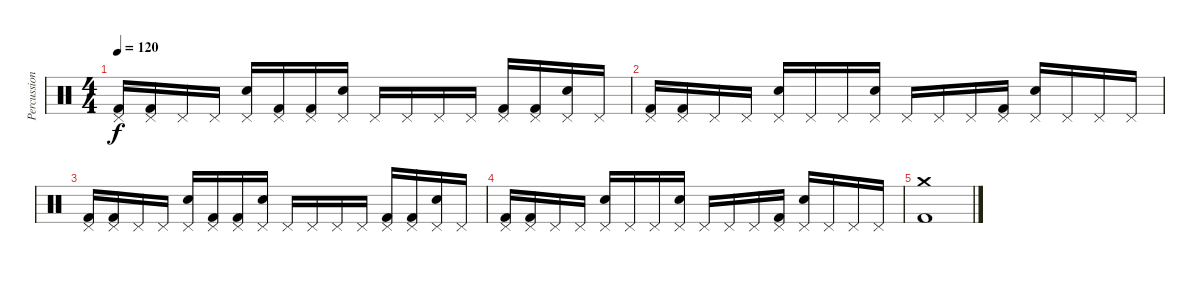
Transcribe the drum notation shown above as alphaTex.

\track ("Percussions" "Percussion") {instrument percussion}
\staff {score}
\articulation defaults
\ts (4 4)
\tempo 120
\clef neutral
\ks c
("Kick (hit) 2" "Pedal Hi-Hat (hit)").16{dy f} ("Kick (hit) 2" "Pedal Hi-Hat (hit)").16 "Pedal Hi-Hat (hit)".16 "Pedal Hi-Hat (hit)".16 ("Snare (hit) 2" "Pedal Hi-Hat (hit)").16 ("Kick (hit) 2" "Pedal Hi-Hat (hit)").16 ("Kick (hit) 2" "Pedal Hi-Hat (hit)").16 ("Snare (hit) 2" "Pedal Hi-Hat (hit)").16 "Pedal Hi-Hat (hit)".16 "Pedal Hi-Hat (hit)".16 "Pedal Hi-Hat (hit)".16 "Pedal Hi-Hat (hit)".16 ("Kick (hit) 2" "Pedal Hi-Hat (hit)").16 ("Kick (hit) 2" "Pedal Hi-Hat (hit)").16 ("Snare (hit) 2" "Pedal Hi-Hat (hit)").16 "Pedal Hi-Hat (hit)".16 |
("Kick (hit) 2" "Pedal Hi-Hat (hit)").16 ("Kick (hit) 2" "Pedal Hi-Hat (hit)").16 "Pedal Hi-Hat (hit)".16 "Pedal Hi-Hat (hit)".16 ("Snare (hit) 2" "Pedal Hi-Hat (hit)").16 "Pedal Hi-Hat (hit)".16 "Pedal Hi-Hat (hit)".16 ("Snare (hit) 2" "Pedal Hi-Hat (hit)").16 "Pedal Hi-Hat (hit)".16 "Pedal Hi-Hat (hit)".16 "Pedal Hi-Hat (hit)".16 ("Kick (hit) 2" "Pedal Hi-Hat (hit)").16 ("Snare (hit) 2" "Pedal Hi-Hat (hit)").16 "Pedal Hi-Hat (hit)".16 "Pedal Hi-Hat (hit)".16 "Pedal Hi-Hat (hit)".16 |
("Kick (hit) 2" "Pedal Hi-Hat (hit)").16 ("Kick (hit) 2" "Pedal Hi-Hat (hit)").16 "Pedal Hi-Hat (hit)".16 "Pedal Hi-Hat (hit)".16 ("Snare (hit) 2" "Pedal Hi-Hat (hit)").16 ("Kick (hit) 2" "Pedal Hi-Hat (hit)").16 ("Kick (hit) 2" "Pedal Hi-Hat (hit)").16 ("Snare (hit) 2" "Pedal Hi-Hat (hit)").16 "Pedal Hi-Hat (hit)".16 "Pedal Hi-Hat (hit)".16 "Pedal Hi-Hat (hit)".16 "Pedal Hi-Hat (hit)".16 ("Kick (hit) 2" "Pedal Hi-Hat (hit)").16 ("Kick (hit) 2" "Pedal Hi-Hat (hit)").16 ("Snare (hit) 2" "Pedal Hi-Hat (hit)").16 "Pedal Hi-Hat (hit)".16 |
("Kick (hit) 2" "Pedal Hi-Hat (hit)").16 ("Kick (hit) 2" "Pedal Hi-Hat (hit)").16 "Pedal Hi-Hat (hit)".16 "Pedal Hi-Hat (hit)".16 ("Snare (hit) 2" "Pedal Hi-Hat (hit)").16 "Pedal Hi-Hat (hit)".16 "Pedal Hi-Hat (hit)".16 ("Snare (hit) 2" "Pedal Hi-Hat (hit)").16 "Pedal Hi-Hat (hit)".16 "Pedal Hi-Hat (hit)".16 "Pedal Hi-Hat (hit)".16 ("Kick (hit) 2" "Pedal Hi-Hat (hit)").16 ("Snare (hit) 2" "Pedal Hi-Hat (hit)").16 "Pedal Hi-Hat (hit)".16 "Pedal Hi-Hat (hit)".16 "Pedal Hi-Hat (hit)".16 |
("Crash medium (hit)" "Kick (hit) 2").1
